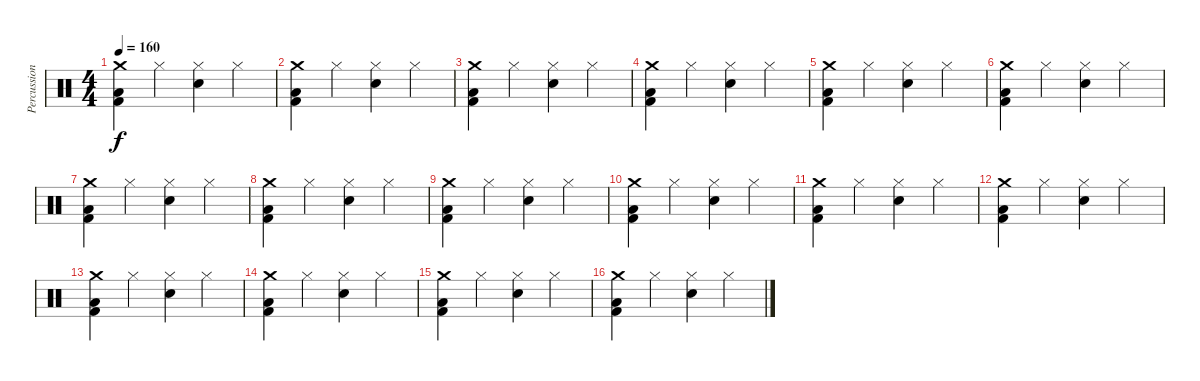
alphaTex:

\track ("Percussion" "Percussion") {instrument percussion}
\staff {score}
\articulation defaults
\ts (4 4)
\tempo 160
\clef neutral
\ks c
("Crash medium (hit)" "Low Tom (hit)" "Kick (hit) 2").4{dy f} "Hi-Hat (closed)".4 ("Hi-Hat (closed)" "Snare (hit) 2").4 "Hi-Hat (closed)".4 |
("Crash medium (hit)" "Low Tom (hit)" "Kick (hit) 2").4 "Hi-Hat (closed)".4 ("Hi-Hat (closed)" "Snare (hit) 2").4 "Hi-Hat (closed)".4 |
("Crash medium (hit)" "Low Tom (hit)" "Kick (hit) 2").4 "Hi-Hat (closed)".4 ("Hi-Hat (closed)" "Snare (hit) 2").4 "Hi-Hat (closed)".4 |
("Crash medium (hit)" "Low Tom (hit)" "Kick (hit) 2").4 "Hi-Hat (closed)".4 ("Hi-Hat (closed)" "Snare (hit) 2").4 "Hi-Hat (closed)".4 |
("Crash medium (hit)" "Low Tom (hit)" "Kick (hit) 2").4 "Hi-Hat (closed)".4 ("Hi-Hat (closed)" "Snare (hit) 2").4 "Hi-Hat (closed)".4 |
("Crash medium (hit)" "Low Tom (hit)" "Kick (hit) 2").4 "Hi-Hat (closed)".4 ("Hi-Hat (closed)" "Snare (hit) 2").4 "Hi-Hat (closed)".4 |
("Crash medium (hit)" "Low Tom (hit)" "Kick (hit) 2").4 "Hi-Hat (closed)".4 ("Hi-Hat (closed)" "Snare (hit) 2").4 "Hi-Hat (closed)".4 |
("Crash medium (hit)" "Low Tom (hit)" "Kick (hit) 2").4 "Hi-Hat (closed)".4 ("Hi-Hat (closed)" "Snare (hit) 2").4 "Hi-Hat (closed)".4 |
("Crash medium (hit)" "Low Tom (hit)" "Kick (hit) 2").4 "Hi-Hat (closed)".4 ("Hi-Hat (closed)" "Snare (hit) 2").4 "Hi-Hat (closed)".4 |
("Crash medium (hit)" "Low Tom (hit)" "Kick (hit) 2").4 "Hi-Hat (closed)".4 ("Hi-Hat (closed)" "Snare (hit) 2").4 "Hi-Hat (closed)".4 |
("Crash medium (hit)" "Low Tom (hit)" "Kick (hit) 2").4 "Hi-Hat (closed)".4 ("Hi-Hat (closed)" "Snare (hit) 2").4 "Hi-Hat (closed)".4 |
("Crash medium (hit)" "Low Tom (hit)" "Kick (hit) 2").4 "Hi-Hat (closed)".4 ("Hi-Hat (closed)" "Snare (hit) 2").4 "Hi-Hat (closed)".4 |
("Crash medium (hit)" "Low Tom (hit)" "Kick (hit) 2").4 "Hi-Hat (closed)".4 ("Hi-Hat (closed)" "Snare (hit) 2").4 "Hi-Hat (closed)".4 |
("Crash medium (hit)" "Low Tom (hit)" "Kick (hit) 2").4 "Hi-Hat (closed)".4 ("Hi-Hat (closed)" "Snare (hit) 2").4 "Hi-Hat (closed)".4 |
("Crash medium (hit)" "Low Tom (hit)" "Kick (hit) 2").4 "Hi-Hat (closed)".4 ("Hi-Hat (closed)" "Snare (hit) 2").4 "Hi-Hat (closed)".4 |
("Crash medium (hit)" "Low Tom (hit)" "Kick (hit) 2").4 "Hi-Hat (closed)".4 ("Hi-Hat (closed)" "Snare (hit) 2").4 "Hi-Hat (closed)".4
